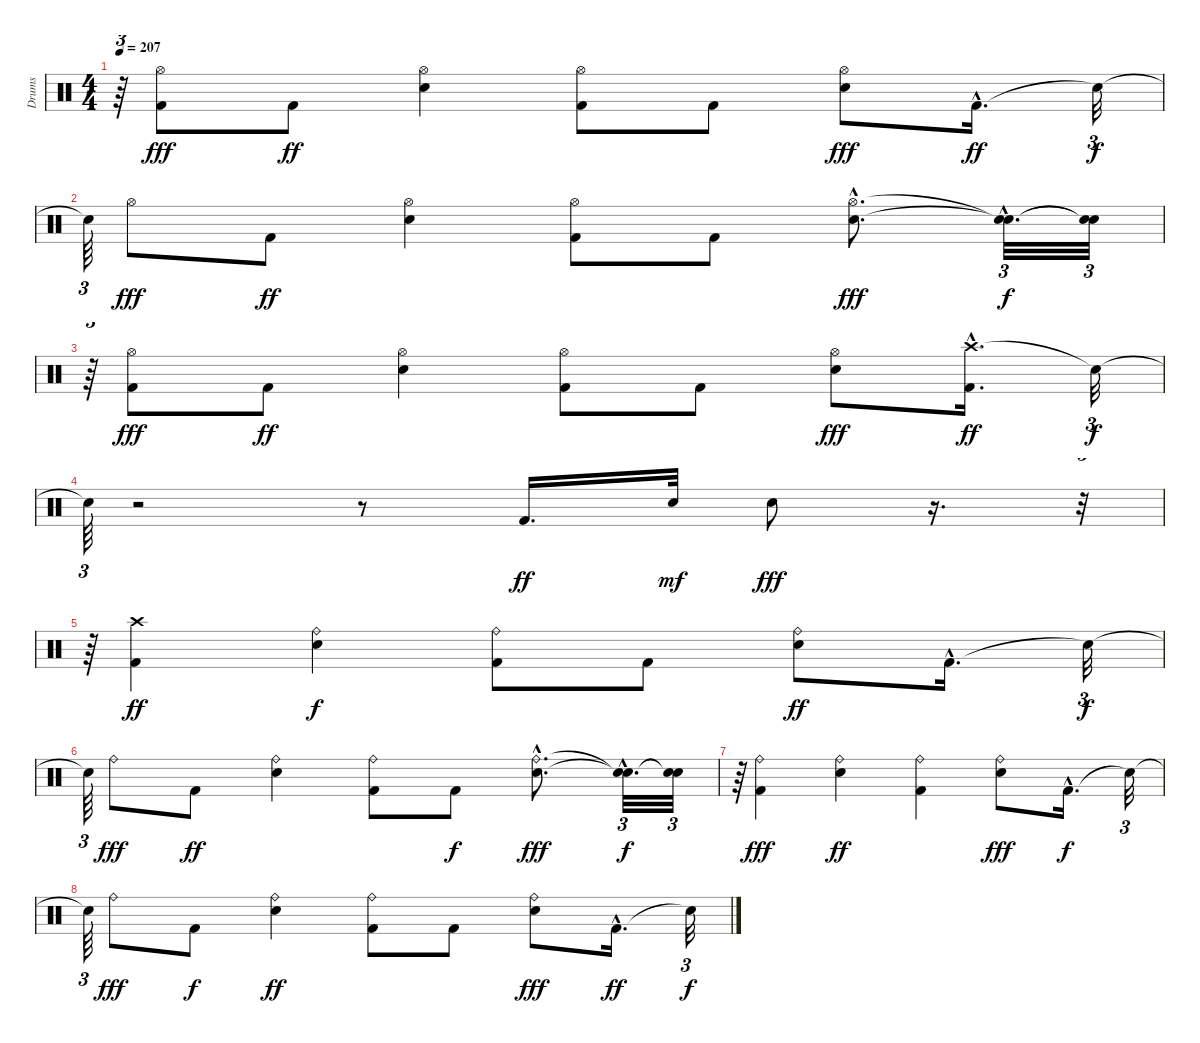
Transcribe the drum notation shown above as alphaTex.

\track ("Drums" "Drums") {instrument percussion}
\staff {score}
\articulation defaults
\ts (4 4)
\tempo 207
\clef neutral
\ks c
r.64{tu (3 2) dy f} ("Kick (hit) 2" "Hi-Hat (open)").8{dy fff} "Kick (hit) 2".8{dy ff} ("Snare (hit) 2" "Hi-Hat (open)").4 ("Kick (hit) 2" "Hi-Hat (open)").8 "Kick (hit) 2".8 ("Snare (hit) 2" "Hi-Hat (open)").8{dy fff} "Kick (hit) 2"{hac}.16{d dy ff} "Snare (hit)"{t}.32{tu (3 2) dy f} |
"Snare (hit)"{t}.64{tu (3 2)} "Hi-Hat (open)".8{dy fff} "Kick (hit) 2".8{dy ff} ("Snare (hit) 2" "Hi-Hat (open)").4 ("Kick (hit) 2" "Hi-Hat (open)").8 "Kick (hit) 2".8 ("Snare (hit) 2"{hac} "Hi-Hat (open)"{hac}).8{d dy fff} ("Snare (hit)"{hac t} "Snare (hit)"{hac t}).32{d tu (3 2) dy f} ("Snare (hit)"{t} "Snare (hit)"{t}).32{tu (3 2)} |
r.64{tu (3 2)} ("Kick (hit) 2" "Hi-Hat (open)").8{dy fff} "Kick (hit) 2".8{dy ff} ("Snare (hit) 2" "Hi-Hat (open)").4 ("Kick (hit) 2" "Hi-Hat (open)").8 "Kick (hit) 2".8 ("Snare (hit) 2" "Hi-Hat (open)").8{dy fff} ("Crash high (hit)"{hac} "Kick (hit) 2"{hac}).16{d dy ff} "Snare (hit)"{t}.32{tu (3 2) dy f} |
"Snare (hit)"{t}.64{tu (3 2)} r.2 r.8 "Kick (hit) 2".16{d dy ff} "Snare (hit) 2".32{dy mf} "Snare (hit) 2".8{dy fff} r.16{d} r.32{tu (3 2)} |
r.64{tu (3 2)} ("Crash high (hit)" "Kick (hit) 2").4{dy ff} ("Ride (bell)" "Snare (hit) 2").4{dy f} ("Kick (hit) 2" "Ride (bell)").8 "Kick (hit) 2".8 ("Snare (hit) 2" "Ride (bell)").8{dy ff} "Kick (hit) 2"{hac}.16{d} "Snare (hit)"{t}.32{tu (3 2) dy f} |
"Snare (hit)"{t}.64{tu (3 2)} "Ride (bell)".8{dy fff} "Kick (hit) 2".8{dy ff} ("Snare (hit) 2" "Ride (bell)").4 ("Kick (hit) 2" "Ride (bell)").8 "Kick (hit) 2".8{dy f} ("Snare (hit) 2"{hac} "Ride (bell)"{hac}).8{d dy fff} ("Snare (hit)"{hac t} "Snare (hit)"{hac t}).32{d tu (3 2) dy f} ("Snare (hit)"{t} "Snare (hit)"{t}).32{tu (3 2)} |
r.64{tu (3 2)} ("Kick (hit) 2" "Ride (bell)").4{dy fff} ("Snare (hit) 2" "Ride (bell)").4{dy ff} ("Kick (hit) 2" "Ride (bell)").4 ("Snare (hit) 2" "Ride (bell)").8{dy fff} "Kick (hit) 2"{hac}.16{d dy f} "Snare (hit)"{t}.32{tu (3 2)} |
"Snare (hit)"{t}.64{tu (3 2)} "Ride (bell)".8{dy fff} "Kick (hit) 2".8{dy f} ("Snare (hit) 2" "Ride (bell)").4{dy ff} ("Kick (hit) 2" "Ride (bell)").8 "Kick (hit) 2".8 ("Snare (hit) 2" "Ride (bell)").8{dy fff} "Kick (hit) 2"{hac}.16{d dy ff} "Snare (hit)"{t}.32{tu (3 2) dy f}
